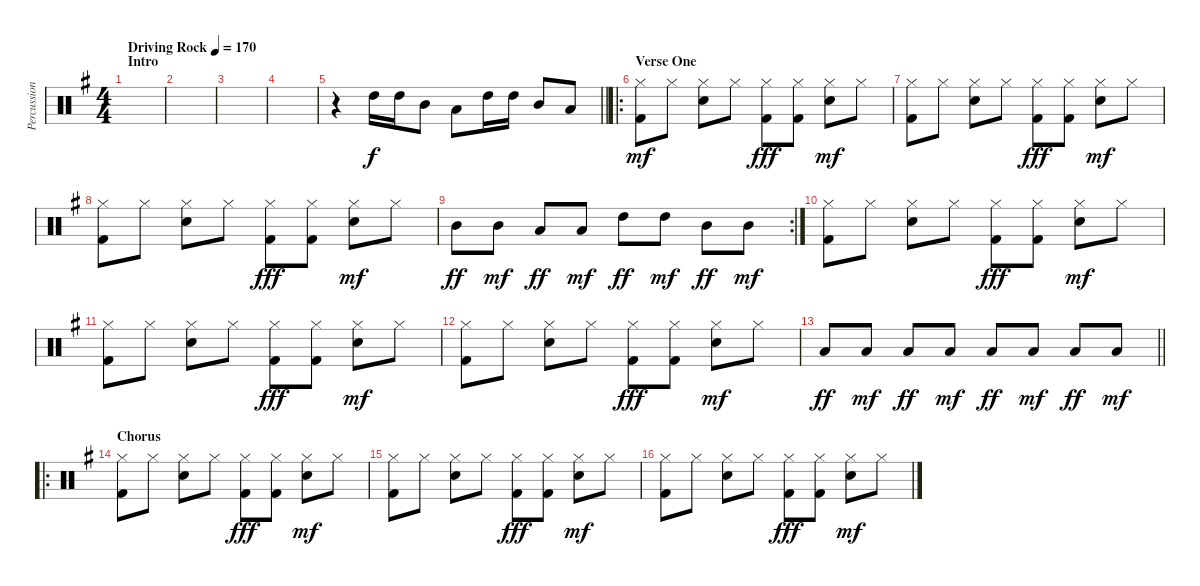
\track ("Percussion" "Percussion") {instrument percussion}
\staff {score}
\articulation defaults
\ts (4 4)
\section ("" "Intro")
\tempo (170 "Driving Rock")
\clef neutral
\ks g
|
|
|
|
\barLineRight lightlight
r.4 "High Tom (hit)".16 "High Tom (hit)".16 "Mid Tom (hit)".8 "Low Tom (hit)".8 "High Tom (hit)".16 "High Tom (hit)".16 "Mid Tom (hit)".8 "Low Tom (hit)".8 |
\ro
\section ("" "Verse One")
("Kick (hit) 2" "Hi-Hat (closed)").8{dy mf} "Hi-Hat (closed)".8 ("Hi-Hat (closed)" "Electric Snare (hit)").8 "Hi-Hat (closed)".8 ("Hi-Hat (closed)" "Kick (hit) 2").8{dy fff} ("Hi-Hat (closed)" "Kick (hit) 2").8 ("Hi-Hat (closed)" "Electric Snare (hit)").8{dy mf} "Hi-Hat (closed)".8 |
("Kick (hit) 2" "Hi-Hat (closed)").8 "Hi-Hat (closed)".8 ("Hi-Hat (closed)" "Electric Snare (hit)").8 "Hi-Hat (closed)".8 ("Hi-Hat (closed)" "Kick (hit) 2").8{dy fff} ("Hi-Hat (closed)" "Kick (hit) 2").8 ("Hi-Hat (closed)" "Electric Snare (hit)").8{dy mf} "Hi-Hat (closed)".8 |
("Kick (hit) 2" "Hi-Hat (closed)").8 "Hi-Hat (closed)".8 ("Hi-Hat (closed)" "Electric Snare (hit)").8 "Hi-Hat (closed)".8 ("Hi-Hat (closed)" "Kick (hit) 2").8{dy fff} ("Hi-Hat (closed)" "Kick (hit) 2").8 ("Hi-Hat (closed)" "Electric Snare (hit)").8{dy mf} "Hi-Hat (closed)".8 |
\rc 2 "Mid Tom (hit)".8{dy ff} "Mid Tom (hit)".8{dy mf} "Low Tom (hit)".8{dy ff} "Low Tom (hit)".8{dy mf} "High Tom (hit)".8{dy ff} "High Tom (hit)".8{dy mf} "Mid Tom (hit)".8{dy ff} "Mid Tom (hit)".8{dy mf}
|
("Kick (hit) 2" "Hi-Hat (closed)").8 "Hi-Hat (closed)".8 ("Hi-Hat (closed)" "Electric Snare (hit)").8 "Hi-Hat (closed)".8 ("Hi-Hat (closed)" "Kick (hit) 2").8{dy fff} ("Hi-Hat (closed)" "Kick (hit) 2").8 ("Hi-Hat (closed)" "Electric Snare (hit)").8{dy mf} "Hi-Hat (closed)".8 |
("Kick (hit) 2" "Hi-Hat (closed)").8 "Hi-Hat (closed)".8 ("Hi-Hat (closed)" "Electric Snare (hit)").8 "Hi-Hat (closed)".8 ("Hi-Hat (closed)" "Kick (hit) 2").8{dy fff} ("Hi-Hat (closed)" "Kick (hit) 2").8 ("Hi-Hat (closed)" "Electric Snare (hit)").8{dy mf} "Hi-Hat (closed)".8 |
("Kick (hit) 2" "Hi-Hat (closed)").8 "Hi-Hat (closed)".8 ("Hi-Hat (closed)" "Electric Snare (hit)").8 "Hi-Hat (closed)".8 ("Hi-Hat (closed)" "Kick (hit) 2").8{dy fff} ("Hi-Hat (closed)" "Kick (hit) 2").8 ("Hi-Hat (closed)" "Electric Snare (hit)").8{dy mf} "Hi-Hat (closed)".8 |
\barLineRight lightlight "Low Tom (hit)".8{dy ff} "Low Tom (hit)".8{dy mf} "Low Tom (hit)".8{dy ff} "Low Tom (hit)".8{dy mf} "Low Tom (hit)".8{dy ff} "Low Tom (hit)".8{dy mf} "Low Tom (hit)".8{dy ff} "Low Tom (hit)".8{dy mf}
|
\ro
\section ("" "Chorus")
("Kick (hit) 2" "Hi-Hat (closed)").8 "Hi-Hat (closed)".8 ("Hi-Hat (closed)" "Electric Snare (hit)").8 "Hi-Hat (closed)".8 ("Hi-Hat (closed)" "Kick (hit) 2").8{dy fff} ("Hi-Hat (closed)" "Kick (hit) 2").8 ("Hi-Hat (closed)" "Electric Snare (hit)").8{dy mf} "Hi-Hat (closed)".8 |
("Kick (hit) 2" "Hi-Hat (closed)").8 "Hi-Hat (closed)".8 ("Hi-Hat (closed)" "Electric Snare (hit)").8 "Hi-Hat (closed)".8 ("Hi-Hat (closed)" "Kick (hit) 2").8{dy fff} ("Hi-Hat (closed)" "Kick (hit) 2").8 ("Hi-Hat (closed)" "Electric Snare (hit)").8{dy mf} "Hi-Hat (closed)".8 |
("Kick (hit) 2" "Hi-Hat (closed)").8 "Hi-Hat (closed)".8 ("Hi-Hat (closed)" "Electric Snare (hit)").8 "Hi-Hat (closed)".8 ("Hi-Hat (closed)" "Kick (hit) 2").8{dy fff} ("Hi-Hat (closed)" "Kick (hit) 2").8 ("Hi-Hat (closed)" "Electric Snare (hit)").8{dy mf} "Hi-Hat (closed)".8
